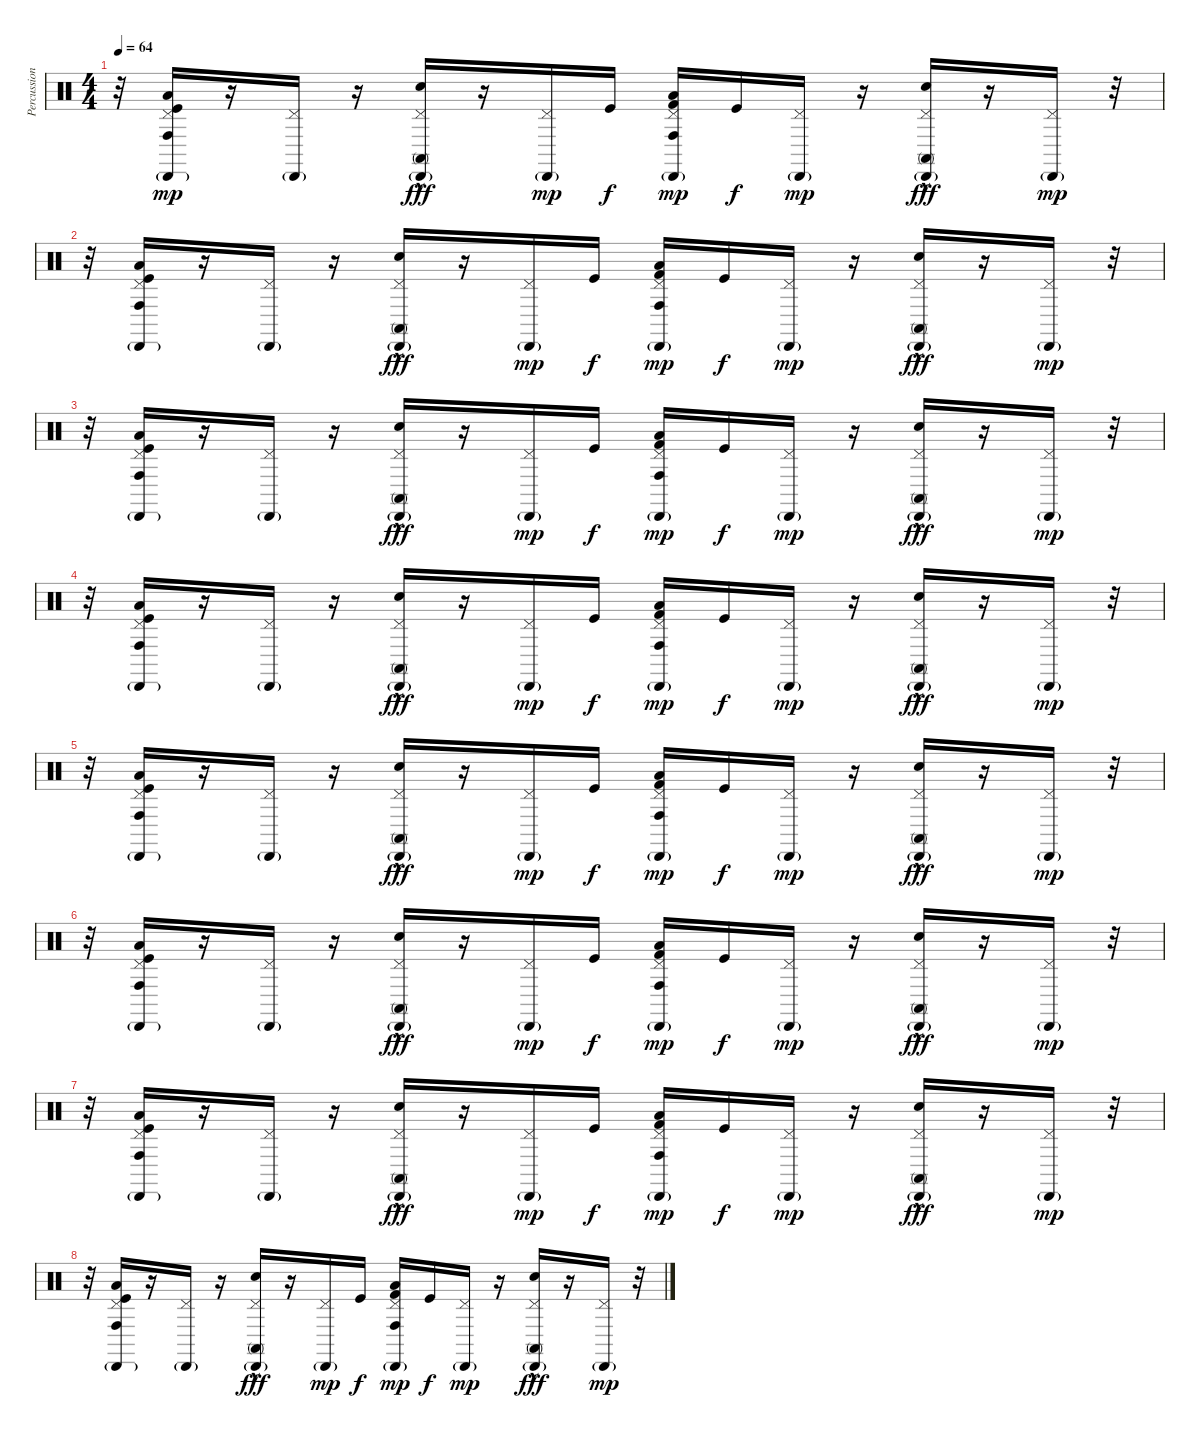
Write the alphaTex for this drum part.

\track ("Percussion" "Percussion") {instrument percussion}
\staff {score}
\articulation defaults
\ts (4 4)
\tempo 64
\clef neutral
\ks c
r.32{dy mp} ("Cabasa (hit)"{g} "Pedal Hi-Hat (hit)" "Low Floor Tom (hit)" "Conga high (hit)" "Kick (hit)").16 r.16 ("Cabasa (hit)"{g} "Pedal Hi-Hat (hit)").16 r.16 ("Cabasa (hit)"{g} "Pedal Hi-Hat (hit)" "Snare (hit) 2"{hac} "Conga high (mute)").16{dy fff} r.16 ("Cabasa (hit)"{g} "Pedal Hi-Hat (hit)").16{dy mp} "Kick (hit)".16{dy f} ("Cabasa (hit)"{g} "Pedal Hi-Hat (hit)" "Low Floor Tom (hit)" "Conga high (hit)" "Kick (hit) 2").16{dy mp} "Kick (hit)".16{dy f} ("Cabasa (hit)"{g} "Pedal Hi-Hat (hit)").16{dy mp} r.16 ("Cabasa (hit)"{g} "Pedal Hi-Hat (hit)" "Snare (hit) 2"{hac} "Conga high (mute)").16{dy fff} r.16 ("Cabasa (hit)"{g} "Pedal Hi-Hat (hit)").16{dy mp} r.32 |
r.32 ("Cabasa (hit)"{g} "Pedal Hi-Hat (hit)" "Low Floor Tom (hit)" "Conga high (hit)" "Kick (hit)").16 r.16 ("Cabasa (hit)"{g} "Pedal Hi-Hat (hit)").16 r.16 ("Cabasa (hit)"{g} "Pedal Hi-Hat (hit)" "Snare (hit) 2"{hac} "Conga high (mute)").16{dy fff} r.16 ("Cabasa (hit)"{g} "Pedal Hi-Hat (hit)").16{dy mp} "Kick (hit)".16{dy f} ("Cabasa (hit)"{g} "Pedal Hi-Hat (hit)" "Low Floor Tom (hit)" "Conga high (hit)" "Kick (hit) 2").16{dy mp} "Kick (hit)".16{dy f} ("Cabasa (hit)"{g} "Pedal Hi-Hat (hit)").16{dy mp} r.16 ("Cabasa (hit)"{g} "Pedal Hi-Hat (hit)" "Snare (hit) 2"{hac} "Conga high (mute)").16{dy fff} r.16 ("Cabasa (hit)"{g} "Pedal Hi-Hat (hit)").16{dy mp} r.32 |
r.32 ("Cabasa (hit)"{g} "Pedal Hi-Hat (hit)" "Low Floor Tom (hit)" "Conga high (hit)" "Kick (hit)").16 r.16 ("Cabasa (hit)"{g} "Pedal Hi-Hat (hit)").16 r.16 ("Cabasa (hit)"{g} "Pedal Hi-Hat (hit)" "Snare (hit) 2"{hac} "Conga high (mute)").16{dy fff} r.16 ("Cabasa (hit)"{g} "Pedal Hi-Hat (hit)").16{dy mp} "Kick (hit)".16{dy f} ("Cabasa (hit)"{g} "Pedal Hi-Hat (hit)" "Low Floor Tom (hit)" "Conga high (hit)" "Kick (hit) 2").16{dy mp} "Kick (hit)".16{dy f} ("Cabasa (hit)"{g} "Pedal Hi-Hat (hit)").16{dy mp} r.16 ("Cabasa (hit)"{g} "Pedal Hi-Hat (hit)" "Snare (hit) 2"{hac} "Conga high (mute)").16{dy fff} r.16 ("Cabasa (hit)"{g} "Pedal Hi-Hat (hit)").16{dy mp} r.32 |
r.32 ("Cabasa (hit)"{g} "Pedal Hi-Hat (hit)" "Low Floor Tom (hit)" "Conga high (hit)" "Kick (hit)").16 r.16 ("Cabasa (hit)"{g} "Pedal Hi-Hat (hit)").16 r.16 ("Cabasa (hit)"{g} "Pedal Hi-Hat (hit)" "Snare (hit) 2"{hac} "Conga high (mute)").16{dy fff} r.16 ("Cabasa (hit)"{g} "Pedal Hi-Hat (hit)").16{dy mp} "Kick (hit)".16{dy f} ("Cabasa (hit)"{g} "Pedal Hi-Hat (hit)" "Low Floor Tom (hit)" "Conga high (hit)" "Kick (hit) 2").16{dy mp} "Kick (hit)".16{dy f} ("Cabasa (hit)"{g} "Pedal Hi-Hat (hit)").16{dy mp} r.16 ("Cabasa (hit)"{g} "Pedal Hi-Hat (hit)" "Snare (hit) 2"{hac} "Conga high (mute)").16{dy fff} r.16 ("Cabasa (hit)"{g} "Pedal Hi-Hat (hit)").16{dy mp} r.32 |
r.32 ("Cabasa (hit)"{g} "Pedal Hi-Hat (hit)" "Low Floor Tom (hit)" "Conga high (hit)" "Kick (hit)").16 r.16 ("Cabasa (hit)"{g} "Pedal Hi-Hat (hit)").16 r.16 ("Cabasa (hit)"{g} "Pedal Hi-Hat (hit)" "Snare (hit) 2"{hac} "Conga high (mute)").16{dy fff} r.16 ("Cabasa (hit)"{g} "Pedal Hi-Hat (hit)").16{dy mp} "Kick (hit)".16{dy f} ("Cabasa (hit)"{g} "Pedal Hi-Hat (hit)" "Low Floor Tom (hit)" "Conga high (hit)" "Kick (hit) 2").16{dy mp} "Kick (hit)".16{dy f} ("Cabasa (hit)"{g} "Pedal Hi-Hat (hit)").16{dy mp} r.16 ("Cabasa (hit)"{g} "Pedal Hi-Hat (hit)" "Snare (hit) 2"{hac} "Conga high (mute)").16{dy fff} r.16 ("Cabasa (hit)"{g} "Pedal Hi-Hat (hit)").16{dy mp} r.32 |
r.32 ("Cabasa (hit)"{g} "Pedal Hi-Hat (hit)" "Low Floor Tom (hit)" "Conga high (hit)" "Kick (hit)").16 r.16 ("Cabasa (hit)"{g} "Pedal Hi-Hat (hit)").16 r.16 ("Cabasa (hit)"{g} "Pedal Hi-Hat (hit)" "Snare (hit) 2"{hac} "Conga high (mute)").16{dy fff} r.16 ("Cabasa (hit)"{g} "Pedal Hi-Hat (hit)").16{dy mp} "Kick (hit)".16{dy f} ("Cabasa (hit)"{g} "Pedal Hi-Hat (hit)" "Low Floor Tom (hit)" "Conga high (hit)" "Kick (hit) 2").16{dy mp} "Kick (hit)".16{dy f} ("Cabasa (hit)"{g} "Pedal Hi-Hat (hit)").16{dy mp} r.16 ("Cabasa (hit)"{g} "Pedal Hi-Hat (hit)" "Snare (hit) 2"{hac} "Conga high (mute)").16{dy fff} r.16 ("Cabasa (hit)"{g} "Pedal Hi-Hat (hit)").16{dy mp} r.32 |
r.32 ("Cabasa (hit)"{g} "Pedal Hi-Hat (hit)" "Low Floor Tom (hit)" "Conga high (hit)" "Kick (hit)").16 r.16 ("Cabasa (hit)"{g} "Pedal Hi-Hat (hit)").16 r.16 ("Cabasa (hit)"{g} "Pedal Hi-Hat (hit)" "Snare (hit) 2"{hac} "Conga high (mute)").16{dy fff} r.16 ("Cabasa (hit)"{g} "Pedal Hi-Hat (hit)").16{dy mp} "Kick (hit)".16{dy f} ("Cabasa (hit)"{g} "Pedal Hi-Hat (hit)" "Low Floor Tom (hit)" "Conga high (hit)" "Kick (hit) 2").16{dy mp} "Kick (hit)".16{dy f} ("Cabasa (hit)"{g} "Pedal Hi-Hat (hit)").16{dy mp} r.16 ("Cabasa (hit)"{g} "Pedal Hi-Hat (hit)" "Snare (hit) 2"{hac} "Conga high (mute)").16{dy fff} r.16 ("Cabasa (hit)"{g} "Pedal Hi-Hat (hit)").16{dy mp} r.32 |
r.32 ("Cabasa (hit)"{g} "Pedal Hi-Hat (hit)" "Low Floor Tom (hit)" "Conga high (hit)" "Kick (hit)").16 r.16 ("Cabasa (hit)"{g} "Pedal Hi-Hat (hit)").16 r.16 ("Cabasa (hit)"{g} "Pedal Hi-Hat (hit)" "Snare (hit) 2"{hac} "Conga high (mute)").16{dy fff} r.16 ("Cabasa (hit)"{g} "Pedal Hi-Hat (hit)").16{dy mp} "Kick (hit)".16{dy f} ("Cabasa (hit)"{g} "Pedal Hi-Hat (hit)" "Low Floor Tom (hit)" "Conga high (hit)" "Kick (hit) 2").16{dy mp} "Kick (hit)".16{dy f} ("Cabasa (hit)"{g} "Pedal Hi-Hat (hit)").16{dy mp} r.16 ("Cabasa (hit)"{g} "Pedal Hi-Hat (hit)" "Snare (hit) 2"{hac} "Conga high (mute)").16{dy fff} r.16 ("Cabasa (hit)"{g} "Pedal Hi-Hat (hit)").16{dy mp} r.32
